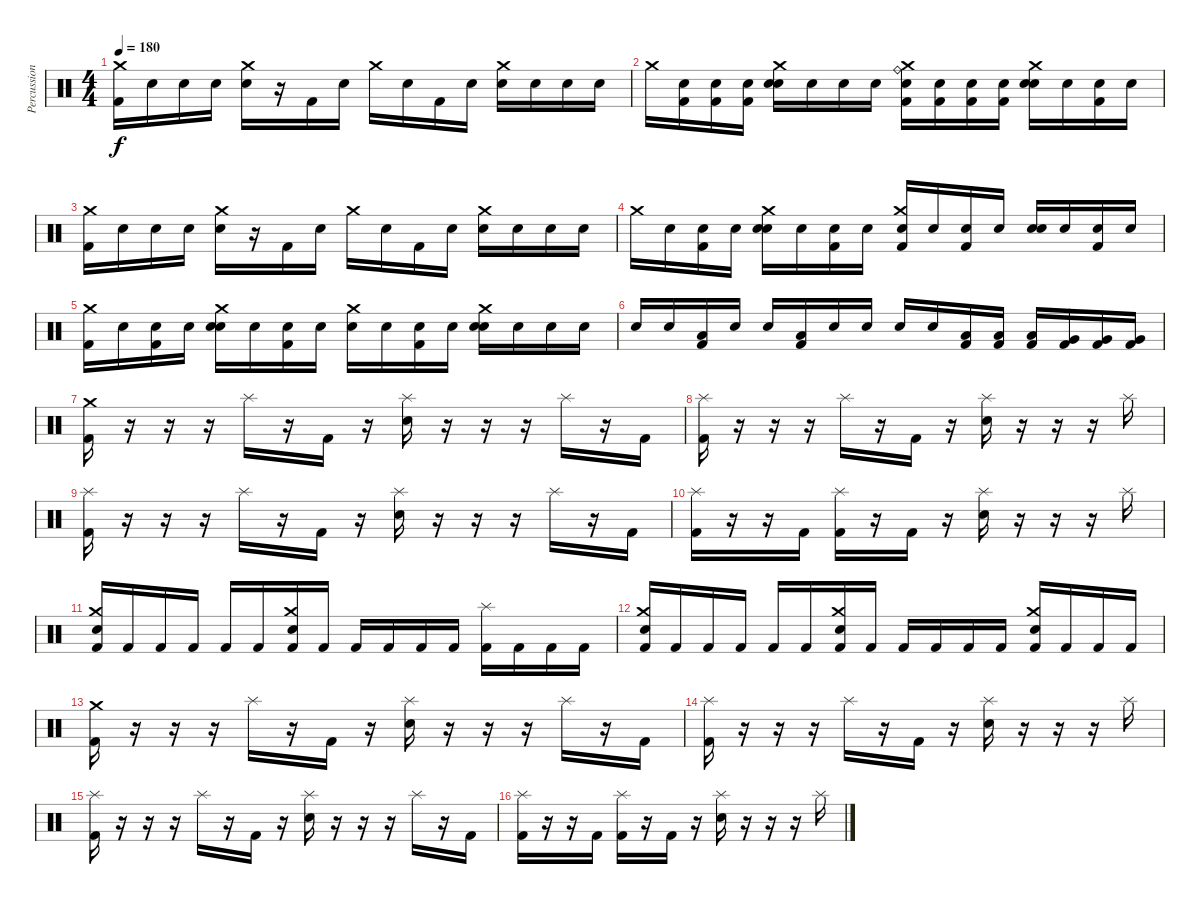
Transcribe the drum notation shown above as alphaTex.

\track ("Percussion" "Percussion") {instrument percussion}
\staff {score}
\articulation defaults
\ts (4 4)
\tempo 180
\clef neutral
\ks c
("Kick (hit) 2" "Crash medium (hit)").16{dy f} "Snare (hit)".16 "Snare (hit)".16 "Snare (hit)".16 ("Snare (hit) 2" "Crash medium (hit)").16 r.16 "Kick (hit) 2".16 "Snare (hit)".16 "Crash medium (hit)".16 "Snare (hit)".16 "Kick (hit) 2".16 "Snare (hit)".16 ("Snare (hit) 2" "Crash medium (hit)").16 "Snare (hit)".16 "Snare (hit)".16 "Snare (hit)".16 |
"Crash medium (hit)".16 ("Snare (hit)" "Kick (hit) 2").16 ("Snare (hit)" "Kick (hit) 2").16 ("Snare (hit)" "Kick (hit) 2").16 ("Snare (hit)" "Snare (hit) 2" "Crash medium (hit)").16 "Snare (hit)".16 "Snare (hit)".16 "Snare (hit)".16 ("Snare (hit)" "Kick (hit) 2" "Crash medium (hit)" "Ride (bell)").16 ("Snare (hit)" "Kick (hit) 2").16 ("Snare (hit)" "Kick (hit) 2").16 ("Snare (hit)" "Kick (hit) 2").16 ("Snare (hit)" "Snare (hit) 2" "Crash medium (hit)").16 "Snare (hit)".16 ("Snare (hit)" "Kick (hit) 2").16 "Snare (hit)".16 |
("Kick (hit) 2" "Crash medium (hit)").16 "Snare (hit)".16 "Snare (hit)".16 "Snare (hit)".16 ("Snare (hit) 2" "Crash medium (hit)").16 r.16 "Kick (hit) 2".16 "Snare (hit)".16 "Crash medium (hit)".16 "Snare (hit)".16 "Kick (hit) 2".16 "Snare (hit)".16 ("Snare (hit) 2" "Crash medium (hit)").16 "Snare (hit)".16 "Snare (hit)".16 "Snare (hit)".16 |
"Crash medium (hit)".16 "Snare (hit)".16 ("Snare (hit)" "Kick (hit) 2").16 "Snare (hit)".16 ("Snare (hit)" "Snare (hit) 2" "Crash medium (hit)").16 "Snare (hit)".16 ("Snare (hit)" "Kick (hit) 2").16 "Snare (hit)".16 ("Snare (hit)" "Kick (hit) 2" "Crash medium (hit)").16 "Snare (hit)".16 ("Snare (hit)" "Kick (hit) 2").16 "Snare (hit)".16 ("Snare (hit)" "Snare (hit) 2").16 "Snare (hit)".16 ("Snare (hit)" "Kick (hit) 2").16 "Snare (hit)".16 |
("Crash medium (hit)" "Kick (hit) 2").16 "Snare (hit)".16 ("Snare (hit)" "Kick (hit) 2").16 "Snare (hit)".16 ("Snare (hit)" "Snare (hit) 2" "Crash medium (hit)").16 "Snare (hit)".16 ("Snare (hit)" "Kick (hit) 2").16 "Snare (hit)".16 ("Snare (hit)" "Crash medium (hit)").16 "Snare (hit)".16 ("Snare (hit)" "Kick (hit) 2").16 "Snare (hit)".16 ("Snare (hit)" "Snare (hit) 2" "Crash medium (hit)").16 "Snare (hit)".16 "Snare (hit)".16 "Snare (hit)".16 |
"Snare (hit) 2".16 "Snare (hit) 2".16 ("Low Tom (hit)" "Kick (hit) 2").16 "Snare (hit) 2".16 "Snare (hit) 2".16 ("Low Tom (hit)" "Kick (hit) 2").16 "Snare (hit) 2".16 "Snare (hit) 2".16 "Snare (hit) 2".16 "Snare (hit) 2".16 ("Low Tom (hit)" "Kick (hit) 2").16 ("Low Tom (hit)" "Kick (hit) 2").16 ("Low Tom (hit)" "Kick (hit) 2").16 ("Very Low Tom (hit)" "Kick (hit) 2").16 ("Very Low Tom (hit)" "Kick (hit) 2").16 ("Very Low Tom (hit)" "Kick (hit) 2").16 |
("Kick (hit) 2" "Crash medium (hit)").16 r.16 r.16 r.16 "Splash (hit)".16 r.16 "Kick (hit) 2".16 r.16 ("Snare (hit) 2" "Splash (hit)").16 r.16 r.16 r.16 "Splash (hit)".16 r.16 "Kick (hit) 2".16 |
("Kick (hit) 2" "Splash (hit)").16 r.16 r.16 r.16 "Splash (hit)".16 r.16 "Kick (hit) 2".16 r.16 ("Snare (hit) 2" "Splash (hit)").16 r.16 r.16 r.16 "Splash (hit)".16 |
("Kick (hit) 2" "Splash (hit)").16 r.16 r.16 r.16 "Splash (hit)".16 r.16 "Kick (hit) 2".16 r.16 ("Snare (hit) 2" "Splash (hit)").16 r.16 r.16 r.16 "Splash (hit)".16 r.16 "Kick (hit) 2".16 |
("Kick (hit) 2" "Splash (hit)").16 r.16 r.16 "Kick (hit) 2".16 ("Splash (hit)" "Kick (hit) 2").16 r.16 "Kick (hit) 2".16 r.16 ("Snare (hit) 2" "Splash (hit)").16 r.16 r.16 r.16 "Splash (hit)".16 |
("Crash medium (hit)" "Kick (hit) 2" "Snare (hit) 2").16 "Kick (hit) 2".16 "Kick (hit) 2".16 "Kick (hit) 2".16 "Kick (hit) 2".16 "Kick (hit) 2".16 ("Crash medium (hit)" "Snare (hit) 2" "Kick (hit) 2").16 "Kick (hit) 2".16 "Kick (hit) 2".16 "Kick (hit) 2".16 "Kick (hit) 2".16 "Kick (hit) 2".16 ("Splash (hit)" "Kick (hit) 2").16 "Kick (hit) 2".16 "Kick (hit) 2".16 "Kick (hit) 2".16 |
("Crash medium (hit)" "Kick (hit) 2" "Snare (hit) 2").16 "Kick (hit) 2".16 "Kick (hit) 2".16 "Kick (hit) 2".16 "Kick (hit) 2".16 "Kick (hit) 2".16 ("Crash medium (hit)" "Snare (hit) 2" "Kick (hit) 2").16 "Kick (hit) 2".16 "Kick (hit) 2".16 "Kick (hit) 2".16 "Kick (hit) 2".16 "Kick (hit) 2".16 ("Snare (hit) 2" "Crash medium (hit)" "Kick (hit) 2").16 "Kick (hit) 2".16 "Kick (hit) 2".16 "Kick (hit) 2".16 |
("Kick (hit) 2" "Crash medium (hit)").16 r.16 r.16 r.16 "Splash (hit)".16 r.16 "Kick (hit) 2".16 r.16 ("Snare (hit) 2" "Splash (hit)").16 r.16 r.16 r.16 "Splash (hit)".16 r.16 "Kick (hit) 2".16 |
("Kick (hit) 2" "Splash (hit)").16 r.16 r.16 r.16 "Splash (hit)".16 r.16 "Kick (hit) 2".16 r.16 ("Snare (hit) 2" "Splash (hit)").16 r.16 r.16 r.16 "Splash (hit)".16 |
("Kick (hit) 2" "Splash (hit)").16 r.16 r.16 r.16 "Splash (hit)".16 r.16 "Kick (hit) 2".16 r.16 ("Snare (hit) 2" "Splash (hit)").16 r.16 r.16 r.16 "Splash (hit)".16 r.16 "Kick (hit) 2".16 |
("Kick (hit) 2" "Splash (hit)").16 r.16 r.16 "Kick (hit) 2".16 ("Splash (hit)" "Kick (hit) 2").16 r.16 "Kick (hit) 2".16 r.16 ("Snare (hit) 2" "Splash (hit)").16 r.16 r.16 r.16 "Splash (hit)".16
